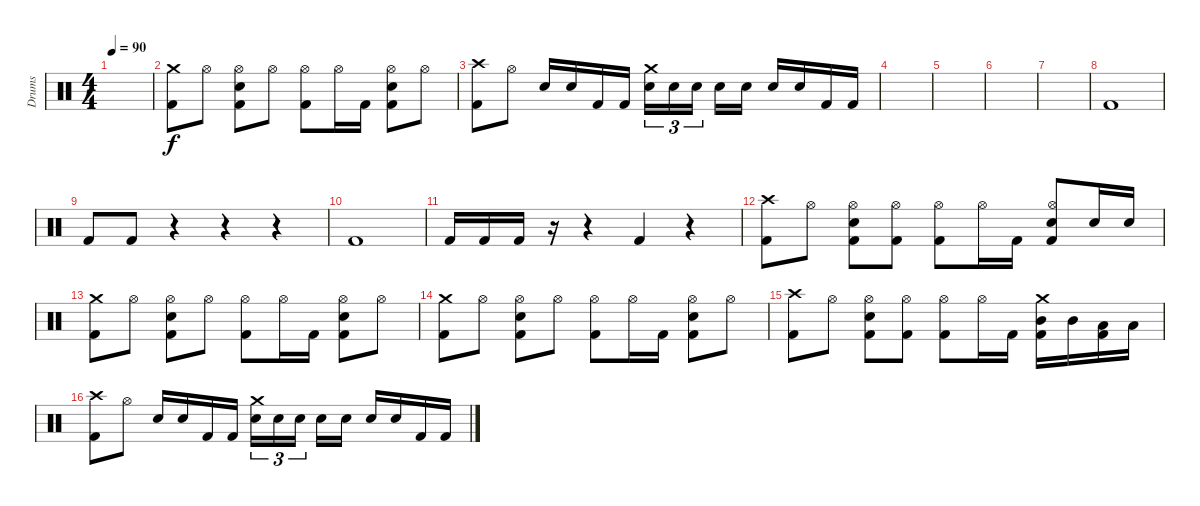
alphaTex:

\track ("Drums" "Drums") {instrument percussion}
\staff {score}
\articulation defaults
\ts (4 4)
\tempo 90
\clef neutral
\ks c
|
("Crash medium (hit)" "Kick (hit) 2").8 "Hi-Hat (open)".8 ("Hi-Hat (open)" "Electric Snare (hit)" "Kick (hit) 2").8 "Hi-Hat (open)".8 ("Hi-Hat (open)" "Kick (hit) 2").8 "Hi-Hat (open)".16 "Kick (hit) 2".16 ("Hi-Hat (open)" "Electric Snare (hit)" "Kick (hit) 2").8 "Hi-Hat (open)".8 |
("Crash high (hit)" "Kick (hit) 2").8 "Hi-Hat (open)".8 "Electric Snare (hit)".16 "Electric Snare (hit)".16 "Kick (hit) 2".16 "Kick (hit) 2".16 ("Crash medium (hit)" "Electric Snare (hit)").16{tu (3 2)} "Electric Snare (hit)".16{tu (3 2)} "Electric Snare (hit)".16{tu (3 2) beam splitsecondary} "Electric Snare (hit)".16 "Electric Snare (hit)".16 "Electric Snare (hit)".16 "Electric Snare (hit)".16 "Kick (hit) 2".16 "Kick (hit) 2".16 |
|
|
|
|
"Kick (hit) 2".1 |
"Kick (hit) 2".8 "Kick (hit) 2".8 r.4 r.4 r.4 |
"Kick (hit) 2".1 |
"Kick (hit) 2".16 "Kick (hit) 2".16 "Kick (hit) 2".16 r.16 r.4 "Kick (hit) 2".4 r.4 |
("Crash high (hit)" "Kick (hit) 2").8 "Hi-Hat (open)".8 ("Hi-Hat (open)" "Electric Snare (hit)" "Kick (hit) 2").8 ("Hi-Hat (open)" "Kick (hit) 2").8 ("Hi-Hat (open)" "Kick (hit) 2").8 "Hi-Hat (open)".16 "Kick (hit) 2".16 ("Hi-Hat (open)" "Electric Snare (hit)" "Kick (hit) 2").8 "Electric Snare (hit)".16 "Electric Snare (hit)".16 |
("Crash medium (hit)" "Kick (hit) 2").8 "Hi-Hat (open)".8 ("Hi-Hat (open)" "Electric Snare (hit)" "Kick (hit) 2").8 "Hi-Hat (open)".8 ("Hi-Hat (open)" "Kick (hit) 2").8 "Hi-Hat (open)".16 "Kick (hit) 2".16 ("Hi-Hat (open)" "Electric Snare (hit)" "Kick (hit) 2").8 "Hi-Hat (open)".8 |
("Crash medium (hit)" "Kick (hit) 2").8 "Hi-Hat (open)".8 ("Hi-Hat (open)" "Electric Snare (hit)" "Kick (hit) 2").8 "Hi-Hat (open)".8 ("Hi-Hat (open)" "Kick (hit) 2").8 "Hi-Hat (open)".16 "Kick (hit) 2".16 ("Hi-Hat (open)" "Electric Snare (hit)" "Kick (hit) 2").8 "Hi-Hat (open)".8 |
("Crash high (hit)" "Kick (hit) 2").8 "Hi-Hat (open)".8 ("Hi-Hat (open)" "Electric Snare (hit)" "Kick (hit) 2").8 ("Hi-Hat (open)" "Kick (hit) 2").8 ("Hi-Hat (open)" "Kick (hit) 2").8 "Hi-Hat (open)".16 "Kick (hit) 2".16 ("Crash medium (hit)" "Mid Tom (hit)" "Kick (hit) 2").16 "Mid Tom (hit)".16 ("Low Tom (hit)" "Kick (hit) 2").16 "Low Tom (hit)".16 |
("Crash high (hit)" "Kick (hit) 2").8 "Hi-Hat (open)".8 "Electric Snare (hit)".16 "Electric Snare (hit)".16 "Kick (hit) 2".16 "Kick (hit) 2".16 ("Crash medium (hit)" "Electric Snare (hit)").16{tu (3 2)} "Electric Snare (hit)".16{tu (3 2)} "Electric Snare (hit)".16{tu (3 2) beam splitsecondary} "Electric Snare (hit)".16 "Electric Snare (hit)".16 "Electric Snare (hit)".16 "Electric Snare (hit)".16 "Kick (hit) 2".16 "Kick (hit) 2".16
